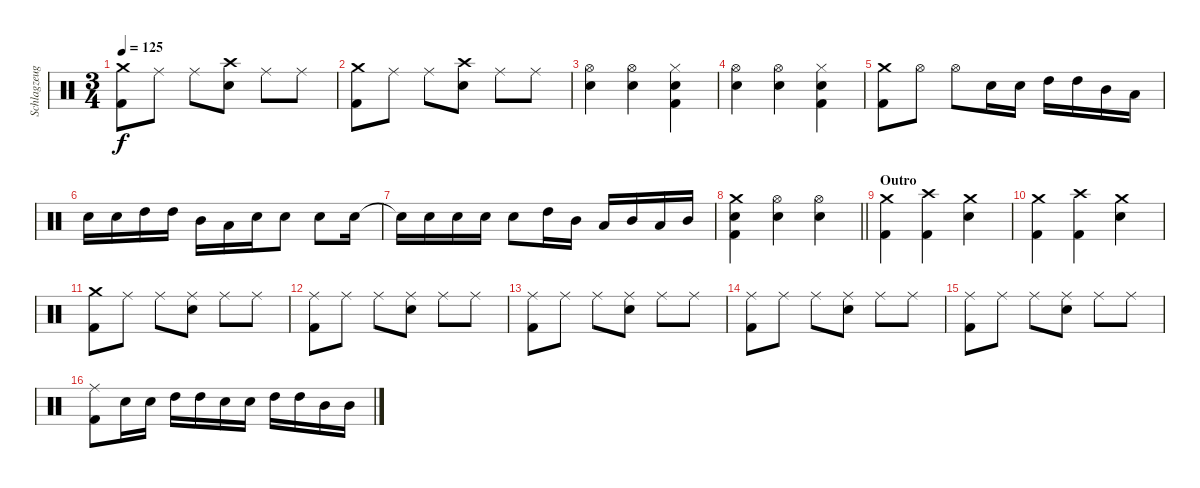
\track ("Schlagzeug" "Schlagzeug") {instrument percussion}
\staff {score}
\articulation defaults
\ts (3 4)
\tempo 125
\clef neutral
\ks c
("Crash medium (hit)" "Kick (hit) 2").8{dy f} "Ride (middle)".8 "Ride (middle)".8 ("Crash high (hit)" "Snare (hit) 2").8 "Ride (middle)".8 "Ride (middle)".8 |
("Crash medium (hit)" "Kick (hit) 2").8 "Ride (middle)".8 "Ride (middle)".8 ("Crash high (hit)" "Snare (hit) 2").8 "Ride (middle)".8 "Ride (middle)".8 |
("Hi-Hat (open)" "Snare (hit) 2").4 ("Hi-Hat (open)" "Snare (hit) 2").4 ("Hi-Hat (closed)" "Snare (hit) 2" "Kick (hit) 2").4 |
("Hi-Hat (open)" "Snare (hit) 2").4 ("Hi-Hat (open)" "Snare (hit) 2").4 ("Hi-Hat (closed)" "Snare (hit) 2" "Kick (hit) 2").4 |
("Crash medium (hit)" "Kick (hit) 2").8 "Hi-Hat (open)".8 "Hi-Hat (open)".8 "Snare (hit) 2".16 "Snare (hit) 2".16 "High Tom (hit)".16 "High Tom (hit)".16 "Mid Tom (hit)".16 "Low Tom (hit)".16 |
"Snare (hit) 2".16 "Snare (hit) 2".16 "High Tom (hit)".16 "High Tom (hit)".16 "Mid Tom (hit)".16 "Low Tom (hit)".16 "Snare (hit) 2".16 "Snare (hit) 2".8 "Snare (hit) 2".8 "Snare (hit) 2".16 |
"Snare (hit)"{t}.16 "Snare (hit) 2".16 "Snare (hit) 2".16 "Snare (hit) 2".16 "Snare (hit) 2".8 "High Tom (hit)".16 "Mid Tom (hit)".16 "Low Tom (hit)".16 "Mid Tom (hit)".16 "Low Tom (hit)".16 "Mid Tom (hit)".16 |
\barLineRight lightlight
("Crash medium (hit)" "Snare (hit) 2" "Kick (hit) 2").4 ("Hi-Hat (open)" "Snare (hit) 2").4 ("Hi-Hat (open)" "Snare (hit) 2").4 |
\section ("" "Outro")
("Crash medium (hit)" "Kick (hit) 2").4 ("Crash high (hit)" "Kick (hit) 2").4 ("Crash medium (hit)" "Snare (hit) 2").4 |
("Crash medium (hit)" "Kick (hit) 2").4 ("Crash high (hit)" "Kick (hit) 2").4 ("Crash medium (hit)" "Snare (hit) 2").4 |
("Crash medium (hit)" "Kick (hit) 2").8 "Ride (middle)".8 "Ride (middle)".8 ("Ride (middle)" "Snare (hit) 2").8 "Ride (middle)".8 "Ride (middle)".8 |
("Ride (middle)" "Kick (hit) 2").8 "Ride (middle)".8 "Ride (middle)".8 ("Ride (middle)" "Snare (hit) 2").8 "Ride (middle)".8 "Ride (middle)".8 |
("Ride (middle)" "Kick (hit) 2").8 "Ride (middle)".8 "Ride (middle)".8 ("Ride (middle)" "Snare (hit) 2").8 "Ride (middle)".8 "Ride (middle)".8 |
("Ride (middle)" "Kick (hit) 2").8 "Ride (middle)".8 "Ride (middle)".8 ("Ride (middle)" "Snare (hit) 2").8 "Ride (middle)".8 "Ride (middle)".8 |
("Ride (middle)" "Kick (hit) 2").8 "Ride (middle)".8 "Ride (middle)".8 ("Ride (middle)" "Snare (hit) 2").8 "Ride (middle)".8 "Ride (middle)".8 |
("Ride (middle)" "Kick (hit) 2").8 "Snare (hit) 2".16 "Snare (hit) 2".16 "High Tom (hit)".16 "High Tom (hit)".16 "Snare (hit) 2".16 "Snare (hit) 2".16 "High Tom (hit)".16 "High Tom (hit)".16 "Mid Tom (hit)".16 "Mid Tom (hit)".16
